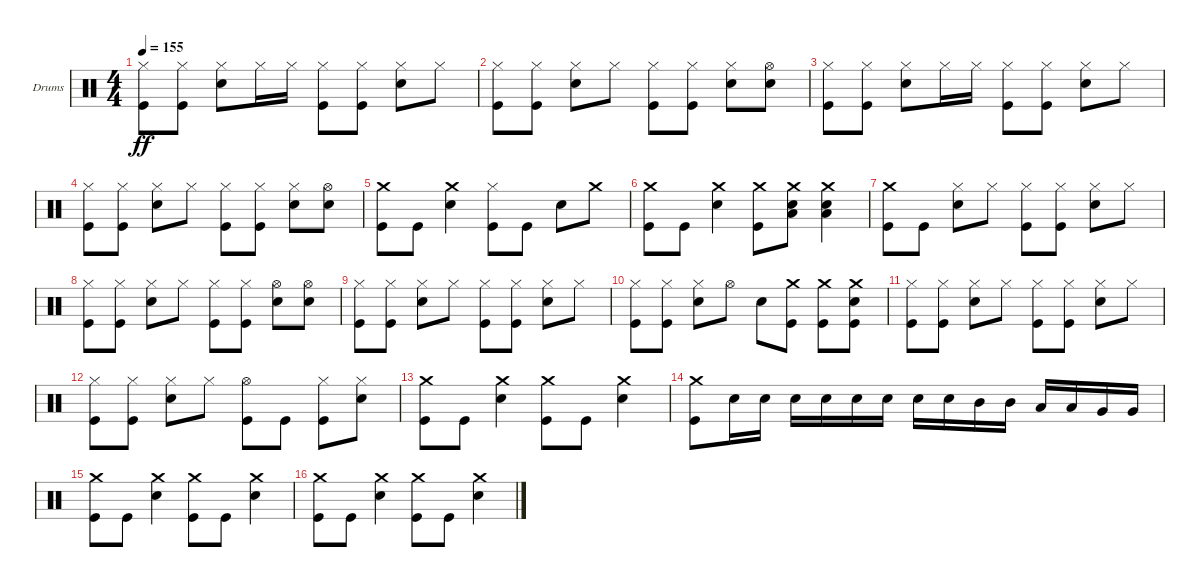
\defaultSystemsLayout 4
\bracketExtendMode groupsimilarinstruments
\firstSystemTrackNameOrientation horizontal
\otherSystemsTrackNameOrientation horizontal
\track ("Drums - Brandon Barnes" "Drums") {instrument percussion}
\staff {score}
\articulation defaults
\ts (4 4)
\tempo 155
\clef neutral
\scale
0.333333
\ks c
("Kick (hit)" "Hi-Hat (closed)").8{dy ff} ("Hi-Hat (closed)" "Kick (hit)").8 ("Snare (hit) 2" "Hi-Hat (closed)").8 "Hi-Hat (closed)".16 "Hi-Hat (closed)".16 ("Kick (hit)" "Hi-Hat (closed)").8 ("Hi-Hat (closed)" "Kick (hit)").8 ("Snare (hit) 2" "Hi-Hat (closed)").8 "Hi-Hat (closed)".8 |
\scale
0.333333 ("Kick (hit)" "Hi-Hat (closed)").8 ("Hi-Hat (closed)" "Kick (hit)").8 ("Snare (hit) 2" "Hi-Hat (closed)").8 "Hi-Hat (closed)".8 ("Kick (hit)" "Hi-Hat (closed)").8 ("Hi-Hat (closed)" "Kick (hit)").8 ("Snare (hit) 2" "Hi-Hat (closed)").8 ("Snare (hit) 2" "Hi-Hat (open)").8 |
\scale
0.333333 ("Kick (hit)" "Hi-Hat (closed)").8 ("Hi-Hat (closed)" "Kick (hit)").8 ("Snare (hit) 2" "Hi-Hat (closed)").8 "Hi-Hat (closed)".16 "Hi-Hat (closed)".16 ("Kick (hit)" "Hi-Hat (closed)").8 ("Hi-Hat (closed)" "Kick (hit)").8 ("Snare (hit) 2" "Hi-Hat (closed)").8 "Hi-Hat (closed)".8 |
\scale
0.333333 ("Kick (hit)" "Hi-Hat (closed)").8 ("Hi-Hat (closed)" "Kick (hit)").8 ("Snare (hit) 2" "Hi-Hat (closed)").8 "Hi-Hat (closed)".8 ("Kick (hit)" "Hi-Hat (closed)").8 ("Hi-Hat (closed)" "Kick (hit)").8 ("Snare (hit) 2" "Hi-Hat (closed)").8 ("Snare (hit) 2" "Hi-Hat (open)").8 |
\scale
0.333333 ("Crash medium (hit)" "Kick (hit)").8 "Kick (hit)".8 ("Snare (hit) 2" "Crash medium (hit)").4 ("Kick (hit)" "Hi-Hat (closed)").8 "Kick (hit)".8 "Snare (hit) 2".8 "Crash medium (hit)".8 |
\scale
0.333333 ("Crash medium (hit)" "Kick (hit)").8 "Kick (hit)".8 ("Snare (hit) 2" "Crash medium (hit)").4 ("Crash medium (hit)" "Kick (hit)").8 ("Snare (hit) 2" "Crash medium (hit)" "Low Tom (hit)").8 ("Snare (hit) 2" "Crash medium (hit)" "Low Tom (hit)").4 |
\scale
0.333333 ("Kick (hit)" "Crash medium (hit)").8 "Kick (hit)".8 ("Snare (hit) 2" "Hi-Hat (closed)").8 "Hi-Hat (closed)".8 ("Kick (hit)" "Hi-Hat (closed)").8 ("Hi-Hat (closed)" "Kick (hit)").8 ("Snare (hit) 2" "Hi-Hat (closed)").8 "Hi-Hat (closed)".8 |
\scale
0.333333 ("Kick (hit)" "Hi-Hat (closed)").8 ("Hi-Hat (closed)" "Kick (hit)").8 ("Snare (hit) 2" "Hi-Hat (closed)").8 "Hi-Hat (closed)".8 ("Kick (hit)" "Hi-Hat (closed)").8 ("Hi-Hat (closed)" "Kick (hit)").8 ("Snare (hit) 2" "Hi-Hat (open)").8 ("Snare (hit) 2" "Hi-Hat (open)").8 |
\scale
0.333333 ("Kick (hit)" "Hi-Hat (closed)").8 ("Hi-Hat (closed)" "Kick (hit)").8 ("Snare (hit) 2" "Hi-Hat (closed)").8 "Hi-Hat (closed)".8 ("Kick (hit)" "Hi-Hat (closed)").8 ("Hi-Hat (closed)" "Kick (hit)").8 ("Snare (hit) 2" "Hi-Hat (closed)").8 "Hi-Hat (closed)".8 |
\scale
0.333333 ("Kick (hit)" "Hi-Hat (closed)").8 ("Hi-Hat (closed)" "Kick (hit)").8 ("Snare (hit) 2" "Hi-Hat (closed)").8 "Hi-Hat (open)".8 "Snare (hit) 2".8 ("Kick (hit)" "Crash medium (hit)").8 ("Kick (hit)" "Crash medium (hit)").8 ("Kick (hit)" "Crash medium (hit)" "Snare (hit) 2").8 |
\scale
0.333333 ("Kick (hit)" "Hi-Hat (closed)").8 ("Hi-Hat (closed)" "Kick (hit)").8 ("Snare (hit) 2" "Hi-Hat (closed)").8 "Hi-Hat (closed)".8 ("Kick (hit)" "Hi-Hat (closed)").8 ("Hi-Hat (closed)" "Kick (hit)").8 ("Snare (hit) 2" "Hi-Hat (closed)").8 "Hi-Hat (closed)".8 |
\scale
0.333333 ("Kick (hit)" "Hi-Hat (closed)").8 ("Hi-Hat (closed)" "Kick (hit)").8 ("Snare (hit) 2" "Hi-Hat (closed)").8 "Hi-Hat (closed)".8 ("Kick (hit)" "Hi-Hat (open)").8 "Kick (hit)".8 ("Hi-Hat (closed)" "Kick (hit)").8 ("Snare (hit) 2" "Hi-Hat (closed)").8 |
\scale
0.333333 ("Crash medium (hit)" "Kick (hit)").8 "Kick (hit)".8 ("Snare (hit) 2" "Crash medium (hit)").4 ("Crash medium (hit)" "Kick (hit)").8 "Kick (hit)".8 ("Snare (hit) 2" "Crash medium (hit)").4 |
\scale
0.333333 ("Crash medium (hit)" "Kick (hit)").8 "Snare (hit) 2".16 "Snare (hit) 2".16 "Snare (hit) 2".16 "Snare (hit) 2".16 "Snare (hit) 2".16 "Snare (hit) 2".16 "Snare (hit) 2".16 "Snare (hit) 2".16 "Mid Tom (hit)".16 "Mid Tom (hit)".16 "Low Tom (hit)".16 "Low Tom (hit)".16 "Very Low Tom (hit)".16 "Very Low Tom (hit)".16 |
\scale
0.333333 ("Crash medium (hit)" "Kick (hit)").8 "Kick (hit)".8 ("Snare (hit) 2" "Crash medium (hit)").4 ("Crash medium (hit)" "Kick (hit)").8 "Kick (hit)".8 ("Snare (hit) 2" "Crash medium (hit)").4 |
\scale
0.333333 ("Crash medium (hit)" "Kick (hit)").8 "Kick (hit)".8 ("Snare (hit) 2" "Crash medium (hit)").4 ("Crash medium (hit)" "Kick (hit)").8 "Kick (hit)".8 ("Snare (hit) 2" "Crash medium (hit)").4
